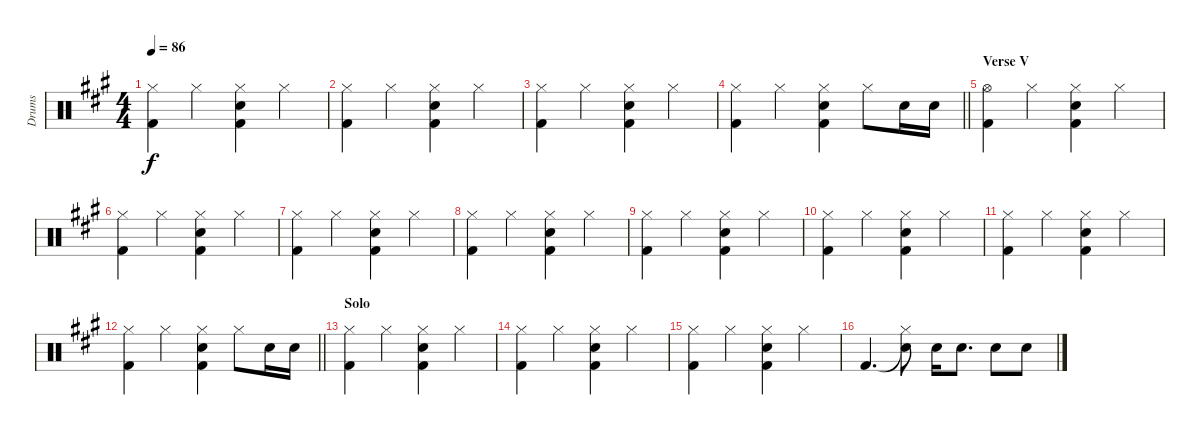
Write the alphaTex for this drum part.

\track ("Drums" "Drums") {instrument percussion}
\staff {score}
\articulation defaults
\ts (4 4)
\tempo 86
\clef neutral
\ks a
("Hi-Hat (closed)" "Kick (hit) 2").4{dy f} "Hi-Hat (closed)".4 ("Hi-Hat (closed)" "Electric Snare (hit)" "Kick (hit) 2").4 "Hi-Hat (closed)".4 |
("Hi-Hat (closed)" "Kick (hit) 2").4 "Hi-Hat (closed)".4 ("Hi-Hat (closed)" "Electric Snare (hit)" "Kick (hit) 2").4 "Hi-Hat (closed)".4 |
("Hi-Hat (closed)" "Kick (hit) 2").4 "Hi-Hat (closed)".4 ("Hi-Hat (closed)" "Electric Snare (hit)" "Kick (hit) 2").4 "Hi-Hat (closed)".4 |
\barLineRight lightlight
("Hi-Hat (closed)" "Kick (hit) 2").4 "Hi-Hat (closed)".4 ("Hi-Hat (closed)" "Electric Snare (hit)" "Kick (hit) 2").4 "Hi-Hat (closed)".8 "Electric Snare (hit)".16 "Electric Snare (hit)".16 |
\section ("" "Verse V")
("Hi-Hat (open)" "Kick (hit) 2").4 "Hi-Hat (closed)".4 ("Hi-Hat (closed)" "Electric Snare (hit)" "Kick (hit) 2").4 "Hi-Hat (closed)".4 |
("Hi-Hat (closed)" "Kick (hit) 2").4 "Hi-Hat (closed)".4 ("Hi-Hat (closed)" "Electric Snare (hit)" "Kick (hit) 2").4 "Hi-Hat (closed)".4 |
("Hi-Hat (closed)" "Kick (hit) 2").4 "Hi-Hat (closed)".4 ("Hi-Hat (closed)" "Electric Snare (hit)" "Kick (hit) 2").4 "Hi-Hat (closed)".4 |
("Hi-Hat (closed)" "Kick (hit) 2").4 "Hi-Hat (closed)".4 ("Hi-Hat (closed)" "Electric Snare (hit)" "Kick (hit) 2").4 "Hi-Hat (closed)".4 |
("Hi-Hat (closed)" "Kick (hit) 2").4 "Hi-Hat (closed)".4 ("Hi-Hat (closed)" "Electric Snare (hit)" "Kick (hit) 2").4 "Hi-Hat (closed)".4 |
("Hi-Hat (closed)" "Kick (hit) 2").4 "Hi-Hat (closed)".4 ("Hi-Hat (closed)" "Electric Snare (hit)" "Kick (hit) 2").4 "Hi-Hat (closed)".4 |
("Hi-Hat (closed)" "Kick (hit) 2").4 "Hi-Hat (closed)".4 ("Hi-Hat (closed)" "Electric Snare (hit)" "Kick (hit) 2").4 "Hi-Hat (closed)".4 |
\barLineRight lightlight
("Hi-Hat (closed)" "Kick (hit) 2").4 "Hi-Hat (closed)".4 ("Hi-Hat (closed)" "Electric Snare (hit)" "Kick (hit) 2").4 "Hi-Hat (closed)".8 "Electric Snare (hit)".16 "Electric Snare (hit)".16 |
\section ("" "Solo")
("Hi-Hat (closed)" "Kick (hit) 2").4 "Hi-Hat (closed)".4 ("Hi-Hat (closed)" "Electric Snare (hit)" "Kick (hit) 2").4 "Hi-Hat (closed)".4 |
("Hi-Hat (closed)" "Kick (hit) 2").4 "Hi-Hat (closed)".4 ("Hi-Hat (closed)" "Electric Snare (hit)" "Kick (hit) 2").4 "Hi-Hat (closed)".4 |
("Hi-Hat (closed)" "Kick (hit) 2").4 "Hi-Hat (closed)".4 ("Hi-Hat (closed)" "Electric Snare (hit)" "Kick (hit) 2").4 "Hi-Hat (closed)".4 |
"Kick (hit) 2".4{d} ("Snare (hit)"{t} "Hi-Hat (closed)").8 "Electric Snare (hit)".16 "Electric Snare (hit)".8{d} "Electric Snare (hit)".8 "Electric Snare (hit)".8
